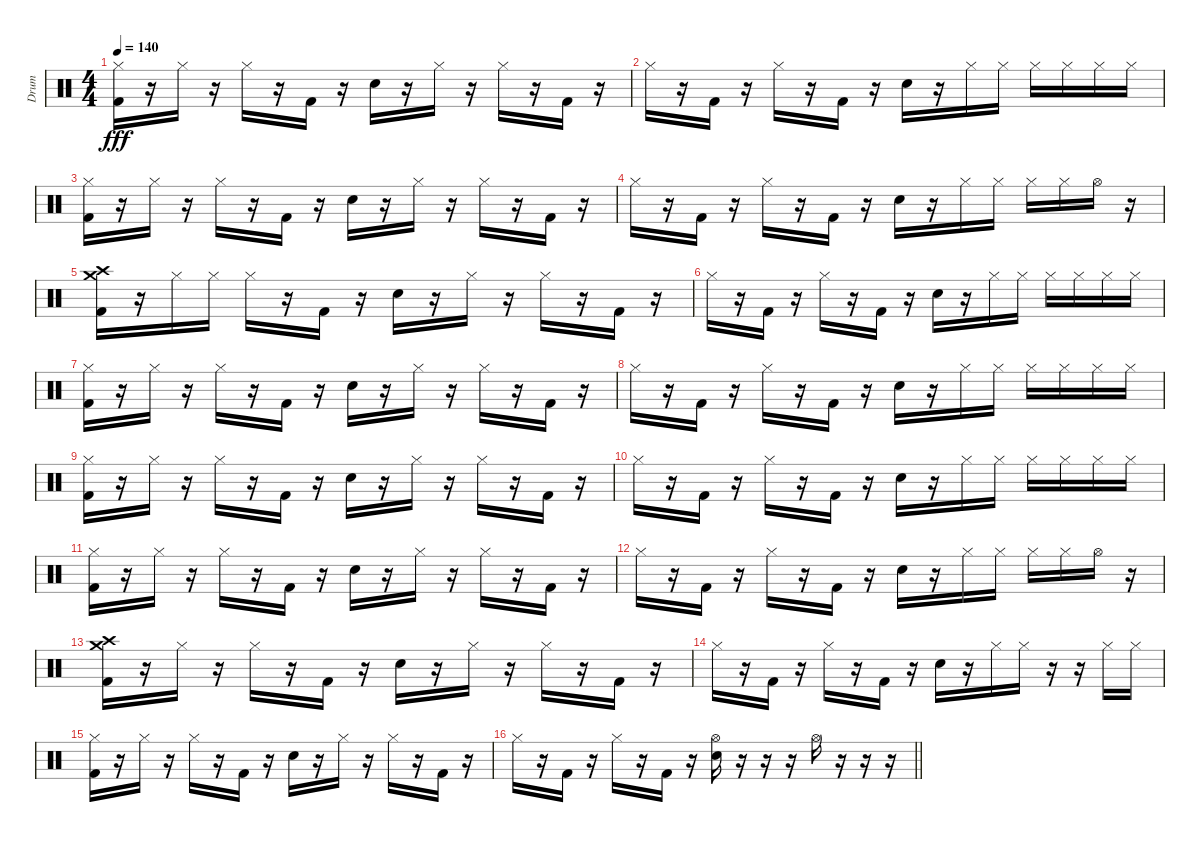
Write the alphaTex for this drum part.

\track ("Drum" "Drum") {instrument percussion}
\staff {score}
\articulation defaults
\ts (4 4)
\tempo 140
\clef neutral
\ks c
("Hi-Hat (closed)" "Kick (hit) 2").16{dy fff} r.16 "Hi-Hat (closed)".16 r.16 "Hi-Hat (closed)".16 r.16 "Kick (hit) 2".16 r.16 "Electric Snare (hit)".16 r.16 "Hi-Hat (closed)".16 r.16 "Hi-Hat (closed)".16 r.16 "Kick (hit) 2".16 r.16 |
"Hi-Hat (closed)".16 r.16 "Kick (hit) 2".16 r.16 "Hi-Hat (closed)".16 r.16 "Kick (hit) 2".16 r.16 "Electric Snare (hit)".16 r.16 "Hi-Hat (closed)".16 "Hi-Hat (closed)".16 "Hi-Hat (closed)".16 "Hi-Hat (closed)".16 "Hi-Hat (closed)".16 "Hi-Hat (closed)".16 |
("Hi-Hat (closed)" "Kick (hit) 2").16 r.16 "Hi-Hat (closed)".16 r.16 "Hi-Hat (closed)".16 r.16 "Kick (hit) 2".16 r.16 "Electric Snare (hit)".16 r.16 "Hi-Hat (closed)".16 r.16 "Hi-Hat (closed)".16 r.16 "Kick (hit) 2".16 r.16 |
"Hi-Hat (closed)".16 r.16 "Kick (hit) 2".16 r.16 "Hi-Hat (closed)".16 r.16 "Kick (hit) 2".16 r.16 "Electric Snare (hit)".16 r.16 "Hi-Hat (closed)".16 "Hi-Hat (closed)".16 "Hi-Hat (closed)".16 "Hi-Hat (closed)".16 "Hi-Hat (open)".16 r.16 |
("Crash medium (hit)" "Crash high (hit)" "Kick (hit) 2").16 r.16 "Hi-Hat (closed)".16 "Hi-Hat (closed)".16 "Hi-Hat (closed)".16 r.16 "Kick (hit) 2".16 r.16 "Electric Snare (hit)".16 r.16 "Hi-Hat (closed)".16 r.16 "Hi-Hat (closed)".16 r.16 "Kick (hit) 2".16 r.16 |
"Hi-Hat (closed)".16 r.16 "Kick (hit) 2".16 r.16 "Hi-Hat (closed)".16 r.16 "Kick (hit) 2".16 r.16 "Electric Snare (hit)".16 r.16 "Hi-Hat (closed)".16 "Hi-Hat (closed)".16 "Hi-Hat (closed)".16 "Hi-Hat (closed)".16 "Hi-Hat (closed)".16 "Hi-Hat (closed)".16 |
("Hi-Hat (closed)" "Kick (hit) 2").16 r.16 "Hi-Hat (closed)".16 r.16 "Hi-Hat (closed)".16 r.16 "Kick (hit) 2".16 r.16 "Electric Snare (hit)".16 r.16 "Hi-Hat (closed)".16 r.16 "Hi-Hat (closed)".16 r.16 "Kick (hit) 2".16 r.16 |
"Hi-Hat (closed)".16 r.16 "Kick (hit) 2".16 r.16 "Hi-Hat (closed)".16 r.16 "Kick (hit) 2".16 r.16 "Electric Snare (hit)".16 r.16 "Hi-Hat (closed)".16 "Hi-Hat (closed)".16 "Hi-Hat (closed)".16 "Hi-Hat (closed)".16 "Hi-Hat (closed)".16 "Hi-Hat (closed)".16 |
("Hi-Hat (closed)" "Kick (hit) 2").16 r.16 "Hi-Hat (closed)".16 r.16 "Hi-Hat (closed)".16 r.16 "Kick (hit) 2".16 r.16 "Electric Snare (hit)".16 r.16 "Hi-Hat (closed)".16 r.16 "Hi-Hat (closed)".16 r.16 "Kick (hit) 2".16 r.16 |
"Hi-Hat (closed)".16 r.16 "Kick (hit) 2".16 r.16 "Hi-Hat (closed)".16 r.16 "Kick (hit) 2".16 r.16 "Electric Snare (hit)".16 r.16 "Hi-Hat (closed)".16 "Hi-Hat (closed)".16 "Hi-Hat (closed)".16 "Hi-Hat (closed)".16 "Hi-Hat (closed)".16 "Hi-Hat (closed)".16 |
("Hi-Hat (closed)" "Kick (hit) 2").16 r.16 "Hi-Hat (closed)".16 r.16 "Hi-Hat (closed)".16 r.16 "Kick (hit) 2".16 r.16 "Electric Snare (hit)".16 r.16 "Hi-Hat (closed)".16 r.16 "Hi-Hat (closed)".16 r.16 "Kick (hit) 2".16 r.16 |
"Hi-Hat (closed)".16 r.16 "Kick (hit) 2".16 r.16 "Hi-Hat (closed)".16 r.16 "Kick (hit) 2".16 r.16 "Electric Snare (hit)".16 r.16 "Hi-Hat (closed)".16 "Hi-Hat (closed)".16 "Hi-Hat (closed)".16 "Hi-Hat (closed)".16 "Hi-Hat (open)".16 r.16 |
("Crash medium (hit)" "Crash high (hit)" "Kick (hit) 2").16 r.16 "Hi-Hat (closed)".16 r.16 "Hi-Hat (closed)".16 r.16 "Kick (hit) 2".16 r.16 "Electric Snare (hit)".16 r.16 "Hi-Hat (closed)".16 r.16 "Hi-Hat (closed)".16 r.16 "Kick (hit) 2".16 r.16 |
"Hi-Hat (closed)".16 r.16 "Kick (hit) 2".16 r.16 "Hi-Hat (closed)".16 r.16 "Kick (hit) 2".16 r.16 "Electric Snare (hit)".16 r.16 "Hi-Hat (closed)".16 "Hi-Hat (closed)".16 r.16 r.16 "Hi-Hat (closed)".16 "Hi-Hat (closed)".16 |
("Hi-Hat (closed)" "Kick (hit) 2").16 r.16 "Hi-Hat (closed)".16 r.16 "Hi-Hat (closed)".16 r.16 "Kick (hit) 2".16 r.16 "Electric Snare (hit)".16 r.16 "Hi-Hat (closed)".16 r.16 "Hi-Hat (closed)".16 r.16 "Kick (hit) 2".16 r.16 |
\barLineRight lightlight "Hi-Hat (closed)".16
r.16 "Kick (hit) 2".16 r.16 "Hi-Hat (closed)".16 r.16 "Kick (hit) 2".16 r.16 ("Hi-Hat (open)" "Electric Snare (hit)").16 r.16 r.16 r.16 "Hi-Hat (open)".16 r.16 r.16 r.16
